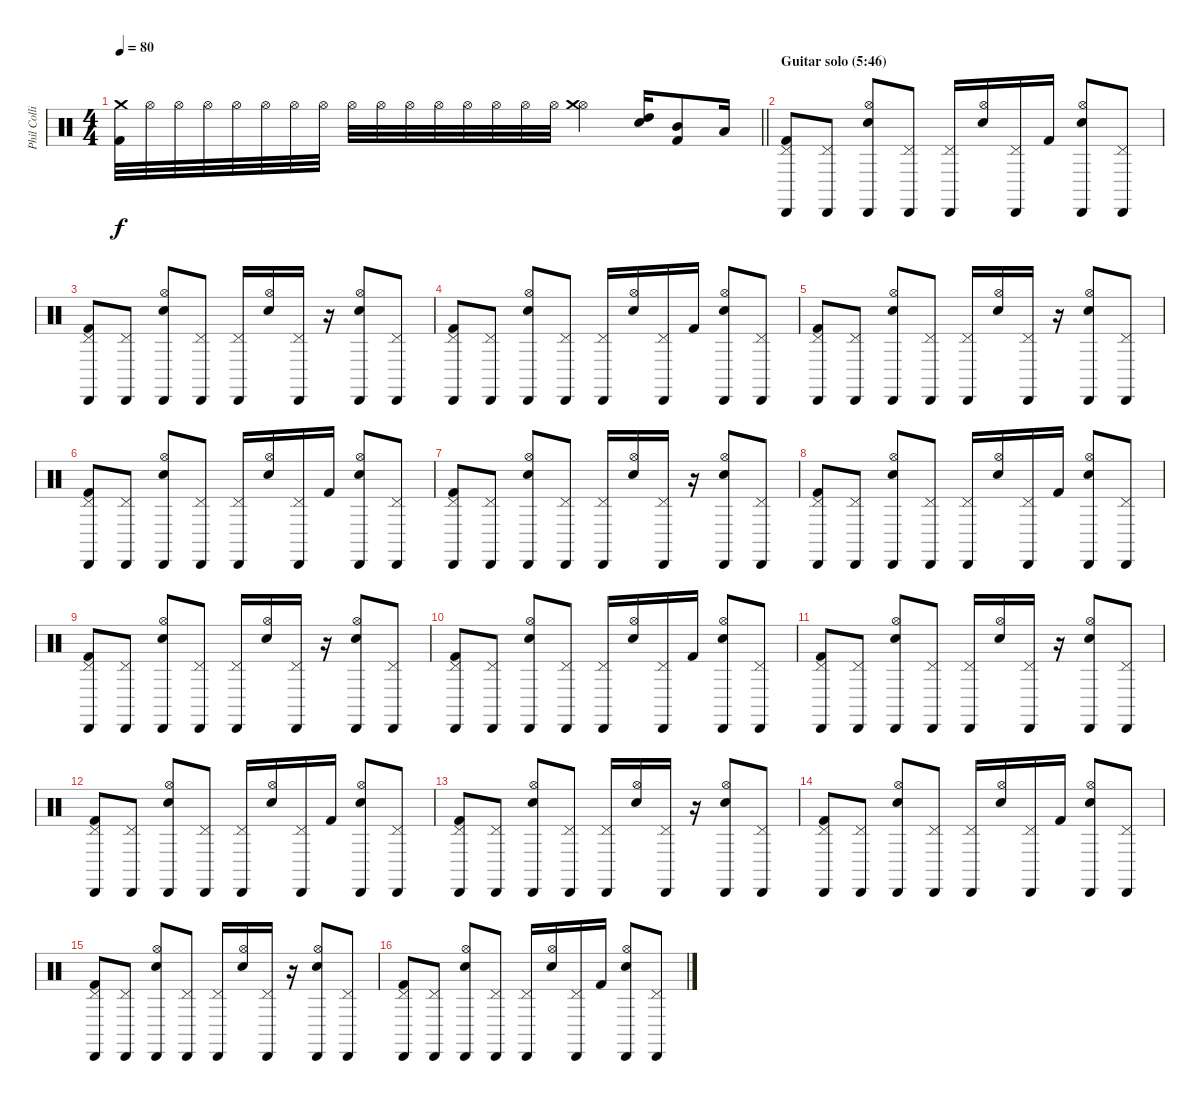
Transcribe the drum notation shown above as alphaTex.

\track ("Phil Collins (drums)" "Phil Colli") {instrument percussion}
\staff {score}
\articulation defaults
\ts (4 4)
\tempo 80
\clef neutral
\barLineRight lightlight
\ks c
("Crash medium (hit)" "Kick (hit) 2").32{dy f} "Hi-Hat (open)".32 "Hi-Hat (open)".32 "Hi-Hat (open)".32 "Hi-Hat (open)".32 "Hi-Hat (open)".32 "Hi-Hat (open)".32 "Hi-Hat (open)".32 "Hi-Hat (open)".32 "Hi-Hat (open)".32 "Hi-Hat (open)".32 "Hi-Hat (open)".32 "Hi-Hat (open)".32 "Hi-Hat (open)".32 "Hi-Hat (open)".32 "Hi-Hat (open)".32 ("Hi-Hat (open)" "Crash medium (hit)").4 ("High Tom (hit)" "Electric Snare (hit)").16 ("Mid Tom (hit)" "Kick (hit) 2").8 "Low Tom (hit)".16 |
\section ("" "Guitar solo (5:46)")
("Cabasa (hit)" "Pedal Hi-Hat (hit)" "Kick (hit) 2").8 ("Cabasa (hit)" "Pedal Hi-Hat (hit)").8 ("Cabasa (hit)" "Hi-Hat (open)" "Electric Snare (hit)").8 ("Cabasa (hit)" "Pedal Hi-Hat (hit)").8 ("Cabasa (hit)" "Pedal Hi-Hat (hit)").16 ("Hi-Hat (open)" "Electric Snare (hit)").16 ("Cabasa (hit)" "Pedal Hi-Hat (hit)").16 "Kick (hit) 2".16 ("Cabasa (hit)" "Hi-Hat (open)" "Electric Snare (hit)").8 ("Cabasa (hit)" "Pedal Hi-Hat (hit)").8 |
("Cabasa (hit)" "Pedal Hi-Hat (hit)" "Kick (hit) 2").8 ("Cabasa (hit)" "Pedal Hi-Hat (hit)").8 ("Cabasa (hit)" "Hi-Hat (open)" "Electric Snare (hit)").8 ("Cabasa (hit)" "Pedal Hi-Hat (hit)").8 ("Cabasa (hit)" "Pedal Hi-Hat (hit)").16 ("Hi-Hat (open)" "Electric Snare (hit)").16 ("Cabasa (hit)" "Pedal Hi-Hat (hit)").16 r.16 ("Cabasa (hit)" "Hi-Hat (open)" "Electric Snare (hit)").8 ("Cabasa (hit)" "Pedal Hi-Hat (hit)").8 |
("Cabasa (hit)" "Pedal Hi-Hat (hit)" "Kick (hit) 2").8 ("Cabasa (hit)" "Pedal Hi-Hat (hit)").8 ("Cabasa (hit)" "Hi-Hat (open)" "Electric Snare (hit)").8 ("Cabasa (hit)" "Pedal Hi-Hat (hit)").8 ("Cabasa (hit)" "Pedal Hi-Hat (hit)").16 ("Hi-Hat (open)" "Electric Snare (hit)").16 ("Cabasa (hit)" "Pedal Hi-Hat (hit)").16 "Kick (hit) 2".16 ("Cabasa (hit)" "Hi-Hat (open)" "Electric Snare (hit)").8 ("Cabasa (hit)" "Pedal Hi-Hat (hit)").8 |
("Cabasa (hit)" "Pedal Hi-Hat (hit)" "Kick (hit) 2").8 ("Cabasa (hit)" "Pedal Hi-Hat (hit)").8 ("Cabasa (hit)" "Hi-Hat (open)" "Electric Snare (hit)").8 ("Cabasa (hit)" "Pedal Hi-Hat (hit)").8 ("Cabasa (hit)" "Pedal Hi-Hat (hit)").16 ("Hi-Hat (open)" "Electric Snare (hit)").16 ("Cabasa (hit)" "Pedal Hi-Hat (hit)").16 r.16 ("Cabasa (hit)" "Hi-Hat (open)" "Electric Snare (hit)").8 ("Cabasa (hit)" "Pedal Hi-Hat (hit)").8 |
("Cabasa (hit)" "Pedal Hi-Hat (hit)" "Kick (hit) 2").8 ("Cabasa (hit)" "Pedal Hi-Hat (hit)").8 ("Cabasa (hit)" "Hi-Hat (open)" "Electric Snare (hit)").8 ("Cabasa (hit)" "Pedal Hi-Hat (hit)").8 ("Cabasa (hit)" "Pedal Hi-Hat (hit)").16 ("Hi-Hat (open)" "Electric Snare (hit)").16 ("Cabasa (hit)" "Pedal Hi-Hat (hit)").16 "Kick (hit) 2".16 ("Cabasa (hit)" "Hi-Hat (open)" "Electric Snare (hit)").8 ("Cabasa (hit)" "Pedal Hi-Hat (hit)").8 |
("Cabasa (hit)" "Pedal Hi-Hat (hit)" "Kick (hit) 2").8 ("Cabasa (hit)" "Pedal Hi-Hat (hit)").8 ("Cabasa (hit)" "Hi-Hat (open)" "Electric Snare (hit)").8 ("Cabasa (hit)" "Pedal Hi-Hat (hit)").8 ("Cabasa (hit)" "Pedal Hi-Hat (hit)").16 ("Hi-Hat (open)" "Electric Snare (hit)").16 ("Cabasa (hit)" "Pedal Hi-Hat (hit)").16 r.16 ("Cabasa (hit)" "Hi-Hat (open)" "Electric Snare (hit)").8 ("Cabasa (hit)" "Pedal Hi-Hat (hit)").8 |
("Cabasa (hit)" "Pedal Hi-Hat (hit)" "Kick (hit) 2").8 ("Cabasa (hit)" "Pedal Hi-Hat (hit)").8 ("Cabasa (hit)" "Hi-Hat (open)" "Electric Snare (hit)").8 ("Cabasa (hit)" "Pedal Hi-Hat (hit)").8 ("Cabasa (hit)" "Pedal Hi-Hat (hit)").16 ("Hi-Hat (open)" "Electric Snare (hit)").16 ("Cabasa (hit)" "Pedal Hi-Hat (hit)").16 "Kick (hit) 2".16 ("Cabasa (hit)" "Hi-Hat (open)" "Electric Snare (hit)").8 ("Cabasa (hit)" "Pedal Hi-Hat (hit)").8 |
("Cabasa (hit)" "Pedal Hi-Hat (hit)" "Kick (hit) 2").8 ("Cabasa (hit)" "Pedal Hi-Hat (hit)").8 ("Cabasa (hit)" "Hi-Hat (open)" "Electric Snare (hit)").8 ("Cabasa (hit)" "Pedal Hi-Hat (hit)").8 ("Cabasa (hit)" "Pedal Hi-Hat (hit)").16 ("Hi-Hat (open)" "Electric Snare (hit)").16 ("Cabasa (hit)" "Pedal Hi-Hat (hit)").16 r.16 ("Cabasa (hit)" "Hi-Hat (open)" "Electric Snare (hit)").8 ("Cabasa (hit)" "Pedal Hi-Hat (hit)").8 |
("Cabasa (hit)" "Pedal Hi-Hat (hit)" "Kick (hit) 2").8 ("Cabasa (hit)" "Pedal Hi-Hat (hit)").8 ("Cabasa (hit)" "Hi-Hat (open)" "Electric Snare (hit)").8 ("Cabasa (hit)" "Pedal Hi-Hat (hit)").8 ("Cabasa (hit)" "Pedal Hi-Hat (hit)").16 ("Hi-Hat (open)" "Electric Snare (hit)").16 ("Cabasa (hit)" "Pedal Hi-Hat (hit)").16 "Kick (hit) 2".16 ("Cabasa (hit)" "Hi-Hat (open)" "Electric Snare (hit)").8 ("Cabasa (hit)" "Pedal Hi-Hat (hit)").8 |
("Cabasa (hit)" "Pedal Hi-Hat (hit)" "Kick (hit) 2").8 ("Cabasa (hit)" "Pedal Hi-Hat (hit)").8 ("Cabasa (hit)" "Hi-Hat (open)" "Electric Snare (hit)").8 ("Cabasa (hit)" "Pedal Hi-Hat (hit)").8 ("Cabasa (hit)" "Pedal Hi-Hat (hit)").16 ("Hi-Hat (open)" "Electric Snare (hit)").16 ("Cabasa (hit)" "Pedal Hi-Hat (hit)").16 r.16 ("Cabasa (hit)" "Hi-Hat (open)" "Electric Snare (hit)").8 ("Cabasa (hit)" "Pedal Hi-Hat (hit)").8 |
("Cabasa (hit)" "Pedal Hi-Hat (hit)" "Kick (hit) 2").8 ("Cabasa (hit)" "Pedal Hi-Hat (hit)").8 ("Cabasa (hit)" "Hi-Hat (open)" "Electric Snare (hit)").8 ("Cabasa (hit)" "Pedal Hi-Hat (hit)").8 ("Cabasa (hit)" "Pedal Hi-Hat (hit)").16 ("Hi-Hat (open)" "Electric Snare (hit)").16 ("Cabasa (hit)" "Pedal Hi-Hat (hit)").16 "Kick (hit) 2".16 ("Cabasa (hit)" "Hi-Hat (open)" "Electric Snare (hit)").8 ("Cabasa (hit)" "Pedal Hi-Hat (hit)").8 |
("Cabasa (hit)" "Pedal Hi-Hat (hit)" "Kick (hit) 2").8 ("Cabasa (hit)" "Pedal Hi-Hat (hit)").8 ("Cabasa (hit)" "Hi-Hat (open)" "Electric Snare (hit)").8 ("Cabasa (hit)" "Pedal Hi-Hat (hit)").8 ("Cabasa (hit)" "Pedal Hi-Hat (hit)").16 ("Hi-Hat (open)" "Electric Snare (hit)").16 ("Cabasa (hit)" "Pedal Hi-Hat (hit)").16 r.16 ("Cabasa (hit)" "Hi-Hat (open)" "Electric Snare (hit)").8 ("Cabasa (hit)" "Pedal Hi-Hat (hit)").8 |
("Cabasa (hit)" "Pedal Hi-Hat (hit)" "Kick (hit) 2").8 ("Cabasa (hit)" "Pedal Hi-Hat (hit)").8 ("Cabasa (hit)" "Hi-Hat (open)" "Electric Snare (hit)").8 ("Cabasa (hit)" "Pedal Hi-Hat (hit)").8 ("Cabasa (hit)" "Pedal Hi-Hat (hit)").16 ("Hi-Hat (open)" "Electric Snare (hit)").16 ("Cabasa (hit)" "Pedal Hi-Hat (hit)").16 "Kick (hit) 2".16 ("Cabasa (hit)" "Hi-Hat (open)" "Electric Snare (hit)").8 ("Cabasa (hit)" "Pedal Hi-Hat (hit)").8 |
("Cabasa (hit)" "Pedal Hi-Hat (hit)" "Kick (hit) 2").8 ("Cabasa (hit)" "Pedal Hi-Hat (hit)").8 ("Cabasa (hit)" "Hi-Hat (open)" "Electric Snare (hit)").8 ("Cabasa (hit)" "Pedal Hi-Hat (hit)").8 ("Cabasa (hit)" "Pedal Hi-Hat (hit)").16 ("Hi-Hat (open)" "Electric Snare (hit)").16 ("Cabasa (hit)" "Pedal Hi-Hat (hit)").16 r.16 ("Cabasa (hit)" "Hi-Hat (open)" "Electric Snare (hit)").8 ("Cabasa (hit)" "Pedal Hi-Hat (hit)").8 |
("Cabasa (hit)" "Pedal Hi-Hat (hit)" "Kick (hit) 2").8 ("Cabasa (hit)" "Pedal Hi-Hat (hit)").8 ("Cabasa (hit)" "Hi-Hat (open)" "Electric Snare (hit)").8 ("Cabasa (hit)" "Pedal Hi-Hat (hit)").8 ("Cabasa (hit)" "Pedal Hi-Hat (hit)").16 ("Hi-Hat (open)" "Electric Snare (hit)").16 ("Cabasa (hit)" "Pedal Hi-Hat (hit)").16 "Kick (hit) 2".16 ("Cabasa (hit)" "Hi-Hat (open)" "Electric Snare (hit)").8 ("Cabasa (hit)" "Pedal Hi-Hat (hit)").8
